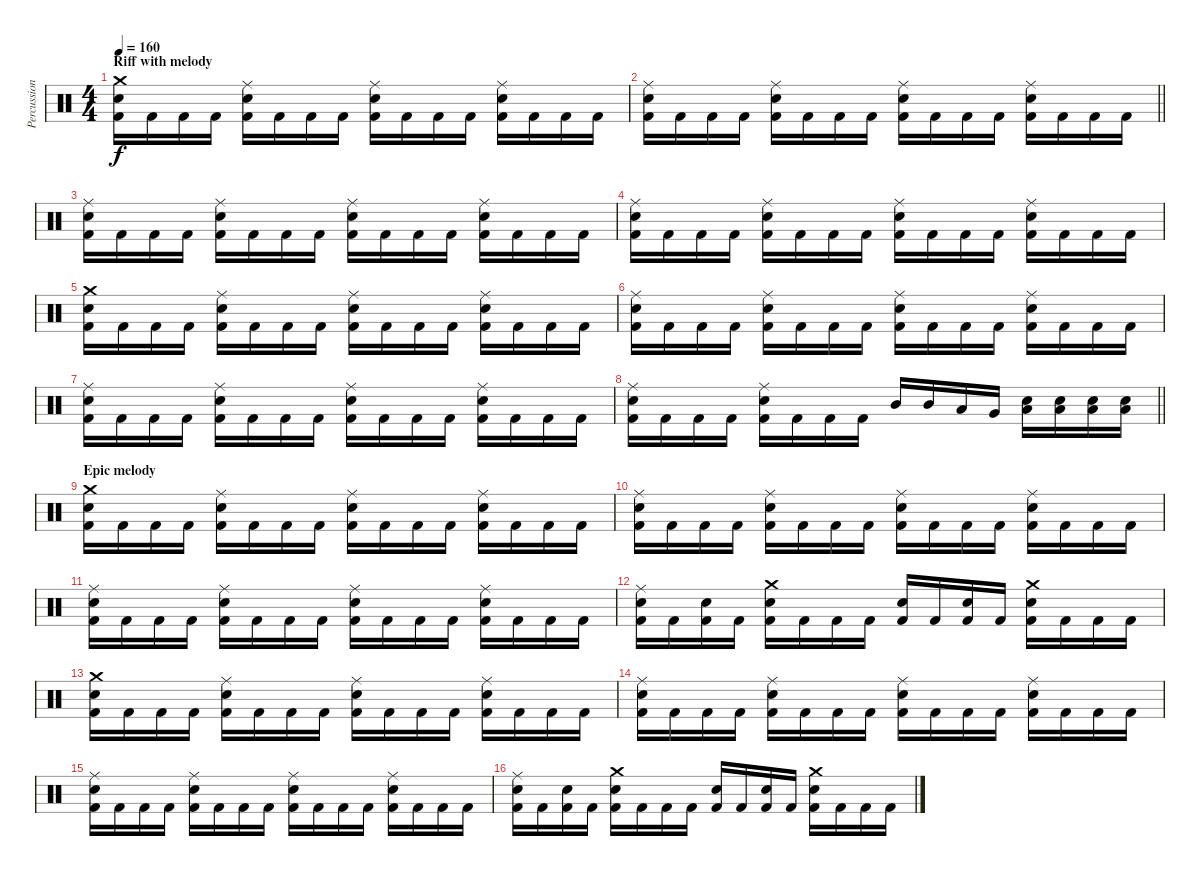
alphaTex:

\track ("Percussion" "Percussion") {instrument percussion}
\staff {score}
\articulation defaults
\ts (4 4)
\section ("" "Riff with melody")
\tempo 160
\clef neutral
\ks c
("Crash medium (hit)" "Snare (hit) 2" "Kick (hit) 2").16{dy f} "Kick (hit) 2".16 "Kick (hit) 2".16 "Kick (hit) 2".16 ("Ride (middle)" "Snare (hit) 2" "Kick (hit) 2").16 "Kick (hit) 2".16 "Kick (hit) 2".16 "Kick (hit) 2".16 ("Ride (middle)" "Snare (hit) 2" "Kick (hit) 2").16 "Kick (hit) 2".16 "Kick (hit) 2".16 "Kick (hit) 2".16 ("Ride (middle)" "Snare (hit) 2" "Kick (hit) 2").16 "Kick (hit) 2".16 "Kick (hit) 2".16 "Kick (hit) 2".16 |
\barLineRight lightlight
("Ride (middle)" "Snare (hit) 2" "Kick (hit) 2").16 "Kick (hit) 2".16 "Kick (hit) 2".16 "Kick (hit) 2".16 ("Ride (middle)" "Snare (hit) 2" "Kick (hit) 2").16 "Kick (hit) 2".16 "Kick (hit) 2".16 "Kick (hit) 2".16 ("Ride (middle)" "Snare (hit) 2" "Kick (hit) 2").16 "Kick (hit) 2".16 "Kick (hit) 2".16 "Kick (hit) 2".16 ("Ride (middle)" "Snare (hit) 2" "Kick (hit) 2").16 "Kick (hit) 2".16 "Kick (hit) 2".16 "Kick (hit) 2".16 |
\section ("" "")
("Ride (middle)" "Snare (hit) 2" "Kick (hit) 2").16 "Kick (hit) 2".16 "Kick (hit) 2".16 "Kick (hit) 2".16 ("Ride (middle)" "Snare (hit) 2" "Kick (hit) 2").16 "Kick (hit) 2".16 "Kick (hit) 2".16 "Kick (hit) 2".16 ("Ride (middle)" "Snare (hit) 2" "Kick (hit) 2").16 "Kick (hit) 2".16 "Kick (hit) 2".16 "Kick (hit) 2".16 ("Ride (middle)" "Snare (hit) 2" "Kick (hit) 2").16 "Kick (hit) 2".16 "Kick (hit) 2".16 "Kick (hit) 2".16 |
("Ride (middle)" "Snare (hit) 2" "Kick (hit) 2").16 "Kick (hit) 2".16 "Kick (hit) 2".16 "Kick (hit) 2".16 ("Ride (middle)" "Snare (hit) 2" "Kick (hit) 2").16 "Kick (hit) 2".16 "Kick (hit) 2".16 "Kick (hit) 2".16 ("Ride (middle)" "Snare (hit) 2" "Kick (hit) 2").16 "Kick (hit) 2".16 "Kick (hit) 2".16 "Kick (hit) 2".16 ("Ride (middle)" "Snare (hit) 2" "Kick (hit) 2").16 "Kick (hit) 2".16 "Kick (hit) 2".16 "Kick (hit) 2".16 |
("Crash medium (hit)" "Snare (hit) 2" "Kick (hit) 2").16 "Kick (hit) 2".16 "Kick (hit) 2".16 "Kick (hit) 2".16 ("Ride (middle)" "Snare (hit) 2" "Kick (hit) 2").16 "Kick (hit) 2".16 "Kick (hit) 2".16 "Kick (hit) 2".16 ("Ride (middle)" "Snare (hit) 2" "Kick (hit) 2").16 "Kick (hit) 2".16 "Kick (hit) 2".16 "Kick (hit) 2".16 ("Ride (middle)" "Snare (hit) 2" "Kick (hit) 2").16 "Kick (hit) 2".16 "Kick (hit) 2".16 "Kick (hit) 2".16 |
("Ride (middle)" "Snare (hit) 2" "Kick (hit) 2").16 "Kick (hit) 2".16 "Kick (hit) 2".16 "Kick (hit) 2".16 ("Ride (middle)" "Snare (hit) 2" "Kick (hit) 2").16 "Kick (hit) 2".16 "Kick (hit) 2".16 "Kick (hit) 2".16 ("Ride (middle)" "Snare (hit) 2" "Kick (hit) 2").16 "Kick (hit) 2".16 "Kick (hit) 2".16 "Kick (hit) 2".16 ("Ride (middle)" "Snare (hit) 2" "Kick (hit) 2").16 "Kick (hit) 2".16 "Kick (hit) 2".16 "Kick (hit) 2".16 |
("Ride (middle)" "Snare (hit) 2" "Kick (hit) 2").16 "Kick (hit) 2".16 "Kick (hit) 2".16 "Kick (hit) 2".16 ("Ride (middle)" "Snare (hit) 2" "Kick (hit) 2").16 "Kick (hit) 2".16 "Kick (hit) 2".16 "Kick (hit) 2".16 ("Ride (middle)" "Snare (hit) 2" "Kick (hit) 2").16 "Kick (hit) 2".16 "Kick (hit) 2".16 "Kick (hit) 2".16 ("Ride (middle)" "Snare (hit) 2" "Kick (hit) 2").16 "Kick (hit) 2".16 "Kick (hit) 2".16 "Kick (hit) 2".16 |
\barLineRight lightlight
("Ride (middle)" "Snare (hit) 2" "Kick (hit) 2").16 "Kick (hit) 2".16 "Kick (hit) 2".16 "Kick (hit) 2".16 ("Ride (middle)" "Snare (hit) 2" "Kick (hit) 2").16 "Kick (hit) 2".16 "Kick (hit) 2".16 "Kick (hit) 2".16 "Mid Tom (hit)".16 "Mid Tom (hit)".16 "Low Tom (hit)".16 "Very Low Tom (hit)".16 ("Low Floor Tom (hit)" "Snare (hit) 2").16 ("Low Floor Tom (hit)" "Snare (hit) 2").16 ("Low Floor Tom (hit)" "Snare (hit) 2").16 ("Low Floor Tom (hit)" "Snare (hit) 2").16 |
\section ("" "Epic melody")
("Crash medium (hit)" "Snare (hit) 2" "Kick (hit) 2").16 "Kick (hit) 2".16 "Kick (hit) 2".16 "Kick (hit) 2".16 ("Ride (middle)" "Snare (hit) 2" "Kick (hit) 2").16 "Kick (hit) 2".16 "Kick (hit) 2".16 "Kick (hit) 2".16 ("Ride (middle)" "Snare (hit) 2" "Kick (hit) 2").16 "Kick (hit) 2".16 "Kick (hit) 2".16 "Kick (hit) 2".16 ("Ride (middle)" "Snare (hit) 2" "Kick (hit) 2").16 "Kick (hit) 2".16 "Kick (hit) 2".16 "Kick (hit) 2".16 |
("Ride (middle)" "Snare (hit) 2" "Kick (hit) 2").16 "Kick (hit) 2".16 "Kick (hit) 2".16 "Kick (hit) 2".16 ("Ride (middle)" "Snare (hit) 2" "Kick (hit) 2").16 "Kick (hit) 2".16 "Kick (hit) 2".16 "Kick (hit) 2".16 ("Ride (middle)" "Snare (hit) 2" "Kick (hit) 2").16 "Kick (hit) 2".16 "Kick (hit) 2".16 "Kick (hit) 2".16 ("Ride (middle)" "Snare (hit) 2" "Kick (hit) 2").16 "Kick (hit) 2".16 "Kick (hit) 2".16 "Kick (hit) 2".16 |
("Ride (middle)" "Snare (hit) 2" "Kick (hit) 2").16 "Kick (hit) 2".16 "Kick (hit) 2".16 "Kick (hit) 2".16 ("Ride (middle)" "Snare (hit) 2" "Kick (hit) 2").16 "Kick (hit) 2".16 "Kick (hit) 2".16 "Kick (hit) 2".16 ("Ride (middle)" "Snare (hit) 2" "Kick (hit) 2").16 "Kick (hit) 2".16 "Kick (hit) 2".16 "Kick (hit) 2".16 ("Ride (middle)" "Snare (hit) 2" "Kick (hit) 2").16 "Kick (hit) 2".16 "Kick (hit) 2".16 "Kick (hit) 2".16 |
("Ride (middle)" "Snare (hit) 2" "Kick (hit) 2").16 "Kick (hit) 2".16 ("Snare (hit) 2" "Kick (hit) 2").16 "Kick (hit) 2".16 ("Crash medium (hit)" "Snare (hit) 2" "Kick (hit) 2").16 "Kick (hit) 2".16 "Kick (hit) 2".16 "Kick (hit) 2".16 ("Snare (hit) 2" "Kick (hit) 2").16 "Kick (hit) 2".16 ("Snare (hit) 2" "Kick (hit) 2").16 "Kick (hit) 2".16 ("Crash medium (hit)" "Snare (hit) 2" "Kick (hit) 2").16 "Kick (hit) 2".16 "Kick (hit) 2".16 "Kick (hit) 2".16 |
("Crash medium (hit)" "Snare (hit) 2" "Kick (hit) 2").16 "Kick (hit) 2".16 "Kick (hit) 2".16 "Kick (hit) 2".16 ("Ride (middle)" "Snare (hit) 2" "Kick (hit) 2").16 "Kick (hit) 2".16 "Kick (hit) 2".16 "Kick (hit) 2".16 ("Ride (middle)" "Snare (hit) 2" "Kick (hit) 2").16 "Kick (hit) 2".16 "Kick (hit) 2".16 "Kick (hit) 2".16 ("Ride (middle)" "Snare (hit) 2" "Kick (hit) 2").16 "Kick (hit) 2".16 "Kick (hit) 2".16 "Kick (hit) 2".16 |
("Ride (middle)" "Snare (hit) 2" "Kick (hit) 2").16 "Kick (hit) 2".16 "Kick (hit) 2".16 "Kick (hit) 2".16 ("Ride (middle)" "Snare (hit) 2" "Kick (hit) 2").16 "Kick (hit) 2".16 "Kick (hit) 2".16 "Kick (hit) 2".16 ("Ride (middle)" "Snare (hit) 2" "Kick (hit) 2").16 "Kick (hit) 2".16 "Kick (hit) 2".16 "Kick (hit) 2".16 ("Ride (middle)" "Snare (hit) 2" "Kick (hit) 2").16 "Kick (hit) 2".16 "Kick (hit) 2".16 "Kick (hit) 2".16 |
("Ride (middle)" "Snare (hit) 2" "Kick (hit) 2").16 "Kick (hit) 2".16 "Kick (hit) 2".16 "Kick (hit) 2".16 ("Ride (middle)" "Snare (hit) 2" "Kick (hit) 2").16 "Kick (hit) 2".16 "Kick (hit) 2".16 "Kick (hit) 2".16 ("Ride (middle)" "Snare (hit) 2" "Kick (hit) 2").16 "Kick (hit) 2".16 "Kick (hit) 2".16 "Kick (hit) 2".16 ("Ride (middle)" "Snare (hit) 2" "Kick (hit) 2").16 "Kick (hit) 2".16 "Kick (hit) 2".16 "Kick (hit) 2".16 |
("Ride (middle)" "Snare (hit) 2" "Kick (hit) 2").16 "Kick (hit) 2".16 ("Snare (hit) 2" "Kick (hit) 2").16 "Kick (hit) 2".16 ("Crash medium (hit)" "Snare (hit) 2" "Kick (hit) 2").16 "Kick (hit) 2".16 "Kick (hit) 2".16 "Kick (hit) 2".16 ("Snare (hit) 2" "Kick (hit) 2").16 "Kick (hit) 2".16 ("Snare (hit) 2" "Kick (hit) 2").16 "Kick (hit) 2".16 ("Crash medium (hit)" "Snare (hit) 2" "Kick (hit) 2").16 "Kick (hit) 2".16 "Kick (hit) 2".16 "Kick (hit) 2".16
